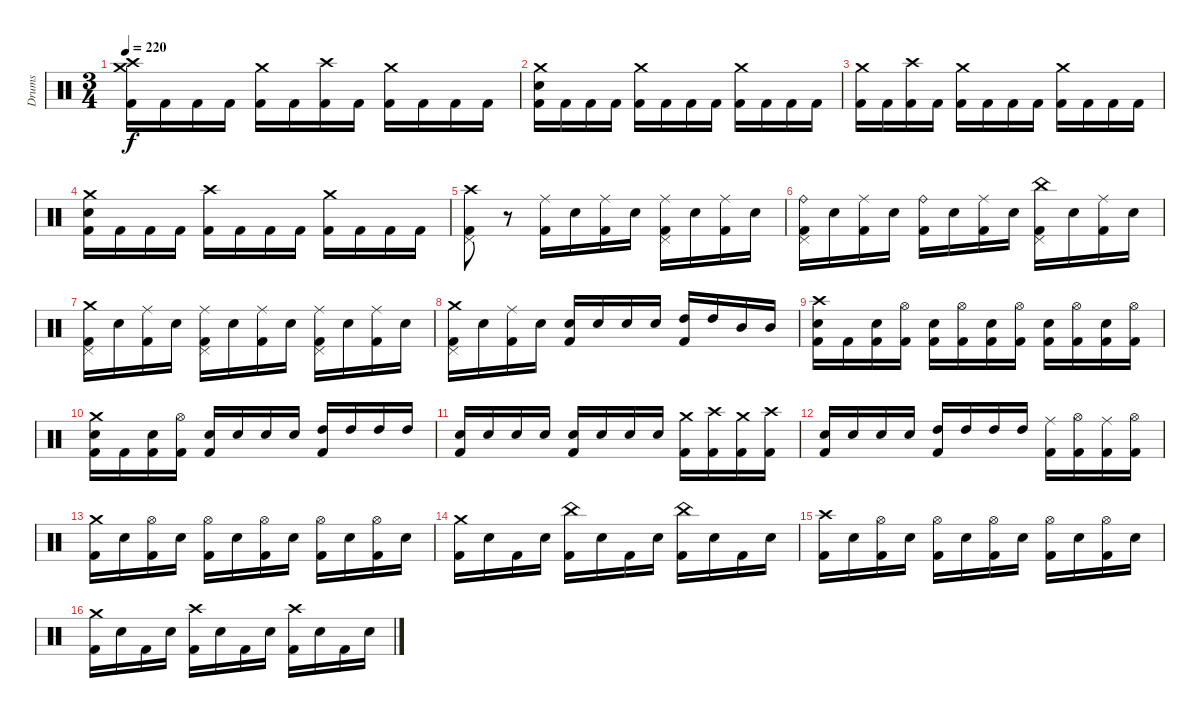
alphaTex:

\track ("Drums" "Drums") {instrument percussion}
\staff
\articulation defaults
\ts (3 4)
\tempo 220
\clef neutral
\ks c
("Crash medium (hit)" "Crash high (hit)" "Kick (hit) 2").16{dy f} "Kick (hit) 2".16 "Kick (hit) 2".16 "Kick (hit) 2".16 ("Crash medium (hit)" "Kick (hit) 2").16 "Kick (hit) 2".16 ("Crash high (hit)" "Kick (hit) 2").16 "Kick (hit) 2".16 ("Crash medium (hit)" "Kick (hit) 2").16 "Kick (hit) 2".16 "Kick (hit) 2".16 "Kick (hit) 2".16 |
("Crash medium (hit)" "Electric Snare (hit)" "Kick (hit) 2").16 "Kick (hit) 2".16 "Kick (hit) 2".16 "Kick (hit) 2".16 ("Crash medium (hit)" "Kick (hit) 2").16 "Kick (hit) 2".16 "Kick (hit) 2".16 "Kick (hit) 2".16 ("Crash medium (hit)" "Kick (hit) 2").16 "Kick (hit) 2".16 "Kick (hit) 2".16 "Kick (hit) 2".16 |
("Crash medium (hit)" "Kick (hit) 2").16 "Kick (hit) 2".16 ("Crash high (hit)" "Kick (hit) 2").16 "Kick (hit) 2".16 ("Crash medium (hit)" "Kick (hit) 2").16 "Kick (hit) 2".16 "Kick (hit) 2".16 "Kick (hit) 2".16 ("Crash medium (hit)" "Kick (hit) 2").16 "Kick (hit) 2".16 "Kick (hit) 2".16 "Kick (hit) 2".16 |
("Crash medium (hit)" "Electric Snare (hit)" "Kick (hit) 2").16 "Kick (hit) 2".16 "Kick (hit) 2".16 "Kick (hit) 2".16 ("Crash high (hit)" "Kick (hit) 2").16 "Kick (hit) 2".16 "Kick (hit) 2".16 "Kick (hit) 2".16 ("Crash medium (hit)" "Kick (hit) 2").16 "Kick (hit) 2".16 "Kick (hit) 2".16 "Kick (hit) 2".16 |
("Pedal Hi-Hat (hit)" "Crash high (hit)" "Kick (hit) 2").8 r.8 ("Ride (middle)" "Kick (hit) 2").16 "Electric Snare (hit)".16 ("Ride (middle)" "Kick (hit) 2").16 "Electric Snare (hit)".16 ("Pedal Hi-Hat (hit)" "Ride (middle)" "Kick (hit) 2").16 "Electric Snare (hit)".16 ("Ride (middle)" "Kick (hit) 2").16 "Electric Snare (hit)".16 |
("Pedal Hi-Hat (hit)" "Ride (bell)" "Kick (hit) 2").16 "Electric Snare (hit)".16 ("Ride (middle)" "Kick (hit) 2").16 "Electric Snare (hit)".16 ("Ride (bell)" "Kick (hit) 2").16 "Electric Snare (hit)".16 ("Ride (middle)" "Kick (hit) 2").16 "Electric Snare (hit)".16 ("Pedal Hi-Hat (hit)" "China (hit)" "Kick (hit) 2").16 "Electric Snare (hit)".16 ("Ride (middle)" "Kick (hit) 2").16 "Electric Snare (hit)".16 |
("Pedal Hi-Hat (hit)" "Crash medium (hit)" "Kick (hit) 2").16 "Electric Snare (hit)".16 ("Ride (middle)" "Kick (hit) 2").16 "Electric Snare (hit)".16 ("Pedal Hi-Hat (hit)" "Ride (middle)" "Kick (hit) 2").16 "Electric Snare (hit)".16 ("Ride (middle)" "Kick (hit) 2").16 "Electric Snare (hit)".16 ("Pedal Hi-Hat (hit)" "Ride (middle)" "Kick (hit) 2").16 "Electric Snare (hit)".16 ("Ride (middle)" "Kick (hit) 2").16 "Electric Snare (hit)".16 |
("Pedal Hi-Hat (hit)" "Crash medium (hit)" "Kick (hit) 2").16 "Electric Snare (hit)".16 ("Ride (middle)" "Kick (hit) 2").16 "Electric Snare (hit)".16 ("Electric Snare (hit)" "Kick (hit) 2").16 "Electric Snare (hit)".16 "Electric Snare (hit)".16 "Electric Snare (hit)".16 ("High Tom (hit)" "Kick (hit) 2").16 "High Tom (hit)".16 "Mid Tom (hit)".16 "Mid Tom (hit)".16 |
("Crash high (hit)" "Electric Snare (hit)" "Kick (hit) 2").16 "Kick (hit) 2".16 ("Electric Snare (hit)" "Kick (hit) 2").16 ("Hi-Hat (open)" "Kick (hit) 2").16 ("Electric Snare (hit)" "Kick (hit) 2").16 ("Hi-Hat (open)" "Kick (hit) 2").16 ("Electric Snare (hit)" "Kick (hit) 2").16 ("Hi-Hat (open)" "Kick (hit) 2").16 ("Electric Snare (hit)" "Kick (hit) 2").16 ("Hi-Hat (open)" "Kick (hit) 2").16 ("Electric Snare (hit)" "Kick (hit) 2").16 ("Hi-Hat (open)" "Kick (hit) 2").16 |
("Crash medium (hit)" "Electric Snare (hit)" "Kick (hit) 2").16 "Kick (hit) 2".16 ("Electric Snare (hit)" "Kick (hit) 2").16 ("Hi-Hat (open)" "Kick (hit) 2").16 ("Electric Snare (hit)" "Kick (hit) 2").16 "Electric Snare (hit)".16 "Electric Snare (hit)".16 "Electric Snare (hit)".16 ("High Tom (hit)" "Kick (hit) 2").16 "High Tom (hit)".16 "High Tom (hit)".16 "High Tom (hit)".16 |
("Electric Snare (hit)" "Kick (hit) 2").16 "Electric Snare (hit)".16 "Electric Snare (hit)".16 "Electric Snare (hit)".16 ("Electric Snare (hit)" "Kick (hit) 2").16 "Electric Snare (hit)".16 "Electric Snare (hit)".16 "Electric Snare (hit)".16 ("Crash medium (hit)" "Kick (hit) 2").16 ("Crash high (hit)" "Kick (hit) 2").16 ("Crash medium (hit)" "Kick (hit) 2").16 ("Crash high (hit)" "Kick (hit) 2").16 |
("Electric Snare (hit)" "Kick (hit) 2").16 "Electric Snare (hit)".16 "Electric Snare (hit)".16 "Electric Snare (hit)".16 ("High Tom (hit)" "Kick (hit) 2").16 "High Tom (hit)".16 "High Tom (hit)".16 "High Tom (hit)".16 ("Ride (middle)" "Kick (hit) 2").16 ("Hi-Hat (open)" "Kick (hit) 2").16 ("Ride (middle)" "Kick (hit) 2").16 ("Hi-Hat (open)" "Kick (hit) 2").16 |
("Crash medium (hit)" "Kick (hit) 2").16 "Electric Snare (hit)".16 ("Hi-Hat (open)" "Kick (hit) 2").16 "Electric Snare (hit)".16 ("Hi-Hat (open)" "Kick (hit) 2").16 "Electric Snare (hit)".16 ("Hi-Hat (open)" "Kick (hit) 2").16 "Electric Snare (hit)".16 ("Hi-Hat (open)" "Kick (hit) 2").16 "Electric Snare (hit)".16 ("Hi-Hat (open)" "Kick (hit) 2").16 "Electric Snare (hit)".16 |
("Crash medium (hit)" "Kick (hit) 2").16 "Electric Snare (hit)".16 "Kick (hit) 2".16 "Electric Snare (hit)".16 ("China (hit)" "Kick (hit) 2").16 "Electric Snare (hit)".16 "Kick (hit) 2".16 "Electric Snare (hit)".16 ("China (hit)" "Kick (hit) 2").16 "Electric Snare (hit)".16 "Kick (hit) 2".16 "Electric Snare (hit)".16 |
("Crash high (hit)" "Kick (hit) 2").16 "Electric Snare (hit)".16 ("Hi-Hat (open)" "Kick (hit) 2").16 "Electric Snare (hit)".16 ("Hi-Hat (open)" "Kick (hit) 2").16 "Electric Snare (hit)".16 ("Hi-Hat (open)" "Kick (hit) 2").16 "Electric Snare (hit)".16 ("Hi-Hat (open)" "Kick (hit) 2").16 "Electric Snare (hit)".16 ("Hi-Hat (open)" "Kick (hit) 2").16 "Electric Snare (hit)".16 |
("Crash medium (hit)" "Kick (hit) 2").16 "Electric Snare (hit)".16 "Kick (hit) 2".16 "Electric Snare (hit)".16 ("Crash high (hit)" "Kick (hit) 2").16 "Electric Snare (hit)".16 "Kick (hit) 2".16 "Electric Snare (hit)".16 ("Crash high (hit)" "Kick (hit) 2").16 "Electric Snare (hit)".16 "Kick (hit) 2".16 "Electric Snare (hit)".16
